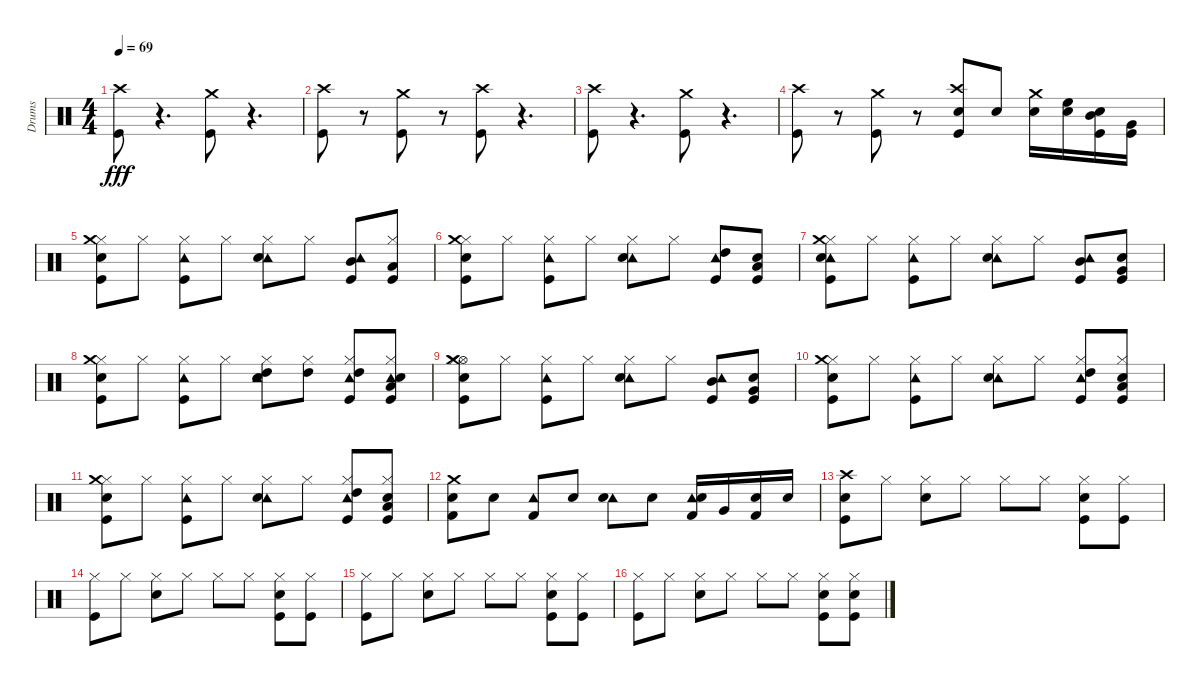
\track ("Drums" "Drums") {instrument percussion}
\staff {score}
\articulation defaults
\ts (4 4)
\tempo 69
\clef neutral
\ks c
("Kick (hit)" "Crash high (hit)").8{dy fff} r.4{d} ("Kick (hit)" "Crash medium (hit)").8 r.4{d} |
("Kick (hit)" "Crash high (hit)").8 r.8 ("Kick (hit)" "Crash medium (hit)").8 r.8 ("Kick (hit)" "Crash high (hit)").8 r.4{d} |
("Kick (hit)" "Crash high (hit)").8 r.4{d} ("Kick (hit)" "Crash medium (hit)").8 r.4{d} |
("Kick (hit)" "Crash high (hit)").8 r.8 ("Crash medium (hit)" "Kick (hit)").8 r.8 ("Kick (hit)" "Snare (hit) 2" "Crash high (hit)").8 "Snare (hit) 2".8 ("Snare (hit) 2" "Crash medium (hit)").16 ("High Floor Tom (hit)" "Snare (hit) 2").16 ("Mid Tom (hit)" "Kick (hit)" "Snare (hit) 2").16 ("Very Low Tom (hit)" "Kick (hit)").16 |
("Hi-Hat (closed)" "Snare (hit) 2" "Kick (hit)" "Crash medium (hit)").8 "Hi-Hat (closed)".8 ("Hi-Hat (closed)" "Kick (hit)" "Tambourine (hit)").8 "Hi-Hat (closed)".8 ("Hi-Hat (closed)" "Tambourine (hit)" "Snare (hit) 2").8 "Hi-Hat (closed)".8 ("Mid Tom (hit)" "Kick (hit)" "Tambourine (hit)").8 ("Low Tom (hit)" "Hi-Hat (closed)" "Kick (hit)").8 |
("Hi-Hat (closed)" "Snare (hit) 2" "Kick (hit)" "Crash medium (hit)").8 "Hi-Hat (closed)".8 ("Hi-Hat (closed)" "Kick (hit)" "Tambourine (hit)").8 "Hi-Hat (closed)".8 ("Tambourine (hit)" "Hi-Hat (closed)" "Snare (hit) 2").8 "Hi-Hat (closed)".8 ("High Tom (hit)" "Kick (hit)" "Tambourine (hit)").8 ("Low Tom (hit)" "Kick (hit)" "Electric Snare (hit)").8 |
("Tambourine (hit)" "Hi-Hat (closed)" "Snare (hit) 2" "Kick (hit)" "Crash medium (hit)").8 "Hi-Hat (closed)".8 ("Hi-Hat (closed)" "Kick (hit)" "Tambourine (hit)").8 "Hi-Hat (closed)".8 ("Hi-Hat (closed)" "Tambourine (hit)" "Snare (hit) 2").8 "Hi-Hat (closed)".8 ("Mid Tom (hit)" "Kick (hit)" "Tambourine (hit)").8 ("Very Low Tom (hit)" "Kick (hit)" "Electric Snare (hit)").8 |
("Hi-Hat (closed)" "Snare (hit) 2" "Kick (hit)" "Crash medium (hit)").8 "Hi-Hat (closed)".8 ("Hi-Hat (closed)" "Kick (hit)" "Tambourine (hit)").8 "Hi-Hat (closed)".8 ("High Tom (hit)" "Hi-Hat (closed)" "Tambourine (hit)" "Snare (hit) 2").8 ("High Tom (hit)" "Hi-Hat (closed)").8 ("High Tom (hit)" "Hi-Hat (closed)" "Kick (hit)" "Tambourine (hit)").8 ("Tambourine (hit)" "Low Tom (hit)" "Hi-Hat (closed)" "Kick (hit)" "Electric Snare (hit)").8 |
("Hi-Hat (open)" "Hi-Hat (closed)" "Snare (hit) 2" "Kick (hit)" "Crash medium (hit)").8 "Hi-Hat (closed)".8 ("Hi-Hat (closed)" "Kick (hit)" "Tambourine (hit)").8 "Hi-Hat (closed)".8 ("Hi-Hat (closed)" "Tambourine (hit)" "Snare (hit) 2").8 "Hi-Hat (closed)".8 ("Mid Tom (hit)" "Kick (hit)" "Tambourine (hit)").8 ("Very Low Tom (hit)" "Kick (hit)" "Electric Snare (hit)").8 |
("Hi-Hat (closed)" "Snare (hit) 2" "Kick (hit)" "Crash medium (hit)").8 "Hi-Hat (closed)".8 ("Hi-Hat (closed)" "Kick (hit)" "Tambourine (hit)").8 "Hi-Hat (closed)".8 ("Hi-Hat (closed)" "Tambourine (hit)" "Snare (hit) 2").8 "Hi-Hat (closed)".8 ("High Tom (hit)" "Hi-Hat (closed)" "Kick (hit)" "Tambourine (hit)").8 ("Low Tom (hit)" "Hi-Hat (closed)" "Kick (hit)" "Electric Snare (hit)").8 |
("Hi-Hat (closed)" "Snare (hit) 2" "Kick (hit)" "Crash medium (hit)").8 "Hi-Hat (closed)".8 ("Hi-Hat (closed)" "Kick (hit)" "Tambourine (hit)").8 "Hi-Hat (closed)".8 ("Hi-Hat (closed)" "Tambourine (hit)" "Snare (hit) 2").8 "Hi-Hat (closed)".8 ("High Tom (hit)" "Hi-Hat (closed)" "Kick (hit)" "Tambourine (hit)").8 ("Low Tom (hit)" "Hi-Hat (closed)" "Kick (hit)" "Electric Snare (hit)").8 |
("Crash medium (hit)" "Snare (hit) 2" "Kick (hit) 2").8 "Electric Snare (hit)".8 ("Tambourine (hit)" "Kick (hit) 2").8 "Electric Snare (hit)".8 ("Tambourine (hit)" "Snare (hit) 2").8 "Electric Snare (hit)".8 ("Tambourine (hit)" "Kick (hit) 2" "Snare (hit) 2").16 "Very Low Tom (hit)".16 ("Electric Snare (hit)" "Kick (hit) 2").16 "Snare (hit) 2".16 |
("Kick (hit)" "Crash high (hit)" "Snare (hit) 2").8 "Hi-Hat (closed)".8 ("Hi-Hat (closed)" "Snare (hit) 2").8 "Hi-Hat (closed)".8 "Hi-Hat (closed)".8 "Hi-Hat (closed)".8 ("Hi-Hat (closed)" "Kick (hit)" "Snare (hit) 2").8 ("Hi-Hat (closed)" "Kick (hit)").8 |
("Hi-Hat (closed)" "Kick (hit)").8 "Hi-Hat (closed)".8 ("Hi-Hat (closed)" "Snare (hit) 2").8 "Hi-Hat (closed)".8 "Hi-Hat (closed)".8 "Hi-Hat (closed)".8 ("Hi-Hat (closed)" "Kick (hit)" "Snare (hit) 2").8 ("Hi-Hat (closed)" "Kick (hit)").8 |
("Hi-Hat (closed)" "Kick (hit)").8 "Hi-Hat (closed)".8 ("Hi-Hat (closed)" "Snare (hit) 2").8 "Hi-Hat (closed)".8 "Hi-Hat (closed)".8 "Hi-Hat (closed)".8 ("Hi-Hat (closed)" "Kick (hit)" "Snare (hit) 2").8 ("Hi-Hat (closed)" "Kick (hit)").8 |
("Hi-Hat (closed)" "Kick (hit)").8 "Hi-Hat (closed)".8 ("Hi-Hat (closed)" "Snare (hit) 2").8 "Hi-Hat (closed)".8 "Hi-Hat (closed)".8 "Hi-Hat (closed)".8 ("Hi-Hat (closed)" "Kick (hit)" "Snare (hit) 2").8 ("Snare (hit) 2" "Hi-Hat (closed)" "Kick (hit)").8
